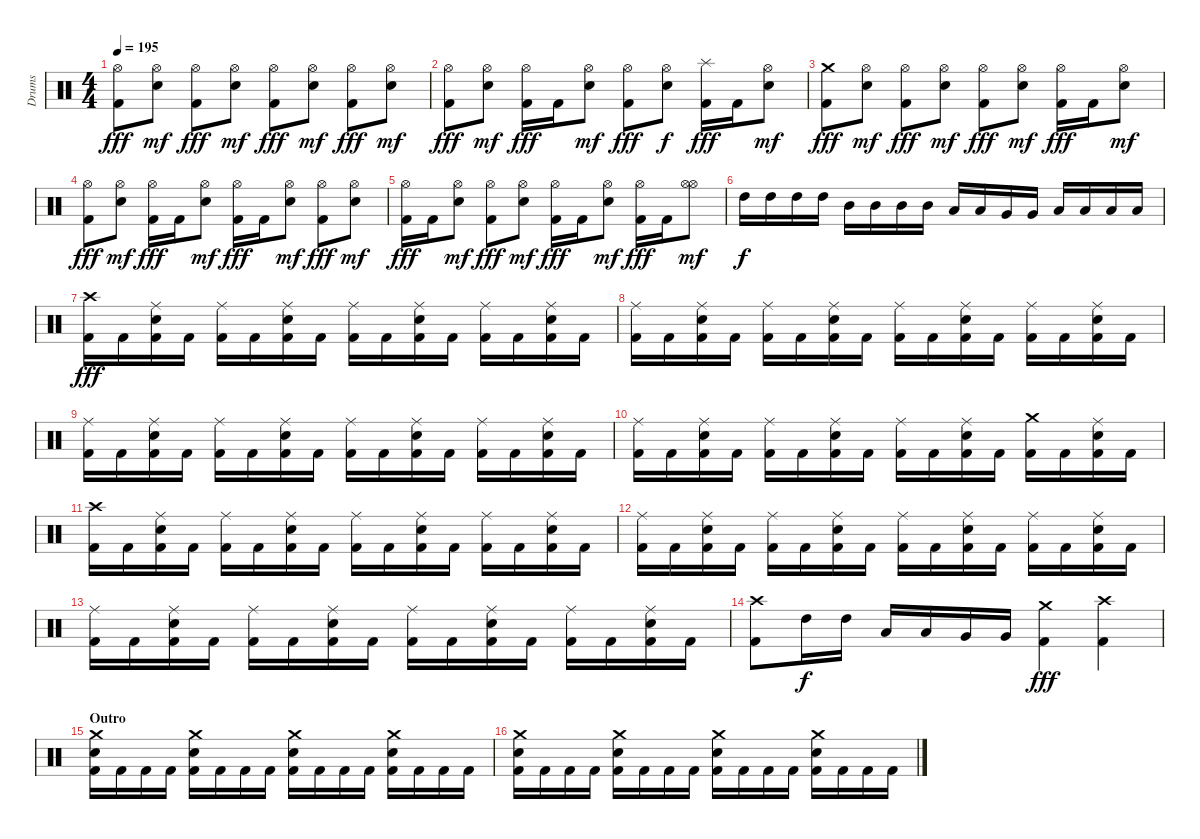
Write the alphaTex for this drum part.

\track ("Drums" "Drums") {instrument percussion}
\staff {score}
\articulation defaults
\ts (4 4)
\tempo 195
\clef neutral
\ks c
("Hi-Hat (open)" "Kick (hit) 2").8{dy fff} ("Hi-Hat (open)" "Snare (hit) 2").8{dy mf} ("Hi-Hat (open)" "Kick (hit) 2").8{dy fff} ("Hi-Hat (open)" "Snare (hit) 2").8{dy mf} ("Hi-Hat (open)" "Kick (hit) 2").8{dy fff} ("Hi-Hat (open)" "Snare (hit) 2").8{dy mf} ("Hi-Hat (open)" "Kick (hit) 2").8{dy fff} ("Hi-Hat (open)" "Snare (hit) 2").8{dy mf} |
("Hi-Hat (open)" "Kick (hit) 2").8{dy fff} ("Hi-Hat (open)" "Snare (hit) 2").8{dy mf} ("Hi-Hat (open)" "Kick (hit) 2").16{dy fff} "Kick (hit) 2".16 ("Hi-Hat (open)" "Snare (hit) 2").8{dy mf} ("Hi-Hat (open)" "Kick (hit) 2").8{dy fff} ("Hi-Hat (open)" "Snare (hit) 2").8{dy f} ("Splash (hit)" "Kick (hit) 2").16{dy fff} "Kick (hit) 2".16 ("Hi-Hat (open)" "Snare (hit) 2").8{dy mf} |
("Crash medium (hit)" "Kick (hit) 2").8{dy fff} ("Hi-Hat (open)" "Snare (hit) 2").8{dy mf} ("Hi-Hat (open)" "Kick (hit) 2").8{dy fff} ("Hi-Hat (open)" "Snare (hit) 2").8{dy mf} ("Hi-Hat (open)" "Kick (hit) 2").8{dy fff} ("Hi-Hat (open)" "Snare (hit) 2").8{dy mf} ("Hi-Hat (open)" "Kick (hit) 2").16{dy fff} "Kick (hit) 2".16 ("Hi-Hat (open)" "Snare (hit) 2").8{dy mf} |
("Hi-Hat (open)" "Kick (hit) 2").8{dy fff} ("Hi-Hat (open)" "Snare (hit) 2").8{dy mf} ("Hi-Hat (open)" "Kick (hit) 2").16{dy fff} "Kick (hit) 2".16 ("Hi-Hat (open)" "Snare (hit) 2").8{dy mf} ("Hi-Hat (open)" "Kick (hit) 2").16{dy fff} "Kick (hit) 2".16 ("Hi-Hat (open)" "Snare (hit) 2").8{dy mf} ("Hi-Hat (open)" "Kick (hit) 2").8{dy fff} ("Hi-Hat (open)" "Snare (hit) 2").8{dy mf} |
("Hi-Hat (open)" "Kick (hit) 2").16{dy fff} "Kick (hit) 2".16 ("Hi-Hat (open)" "Snare (hit) 2").8{dy mf} ("Hi-Hat (open)" "Kick (hit) 2").8{dy fff} ("Hi-Hat (open)" "Snare (hit) 2").8{dy mf} ("Hi-Hat (open)" "Kick (hit) 2").16{dy fff} "Kick (hit) 2".16 ("Hi-Hat (open)" "Snare (hit) 2").8{dy mf} ("Hi-Hat (open)" "Kick (hit) 2").16{dy fff} "Kick (hit) 2".16 ("Hi-Hat (open)" "Hi-Hat (open)").8{dy mf} |
"High Tom (hit)".16{dy f} "High Tom (hit)".16 "High Tom (hit)".16 "High Tom (hit)".16 "Mid Tom (hit)".16 "Mid Tom (hit)".16 "Mid Tom (hit)".16 "Mid Tom (hit)".16 "Low Tom (hit)".16 "Low Tom (hit)".16 "Very Low Tom (hit)".16 "Very Low Tom (hit)".16 "Low Floor Tom (hit)".16 "Low Floor Tom (hit)".16 "Low Floor Tom (hit)".16 "Low Floor Tom (hit)".16 |
("Crash high (hit)" "Kick (hit) 2").16{dy fff} "Kick (hit) 2".16 ("Ride (middle)" "Snare (hit) 2" "Kick (hit) 2").16 "Kick (hit) 2".16 ("Ride (middle)" "Kick (hit) 2").16 "Kick (hit) 2".16 ("Ride (middle)" "Snare (hit) 2" "Kick (hit) 2").16 "Kick (hit) 2".16 ("Ride (middle)" "Kick (hit) 2").16 "Kick (hit) 2".16 ("Ride (middle)" "Snare (hit) 2" "Kick (hit) 2").16 "Kick (hit) 2".16 ("Ride (middle)" "Kick (hit) 2").16 "Kick (hit) 2".16 ("Ride (middle)" "Snare (hit) 2" "Kick (hit) 2").16 "Kick (hit) 2".16 |
("Ride (middle)" "Kick (hit) 2").16 "Kick (hit) 2".16 ("Ride (middle)" "Snare (hit) 2" "Kick (hit) 2").16 "Kick (hit) 2".16 ("Ride (middle)" "Kick (hit) 2").16 "Kick (hit) 2".16 ("Ride (middle)" "Snare (hit) 2" "Kick (hit) 2").16 "Kick (hit) 2".16 ("Ride (middle)" "Kick (hit) 2").16 "Kick (hit) 2".16 ("Ride (middle)" "Snare (hit) 2" "Kick (hit) 2").16 "Kick (hit) 2".16 ("Ride (middle)" "Kick (hit) 2").16 "Kick (hit) 2".16 ("Ride (middle)" "Snare (hit) 2" "Kick (hit) 2").16 "Kick (hit) 2".16 |
("Ride (middle)" "Kick (hit) 2").16 "Kick (hit) 2".16 ("Ride (middle)" "Snare (hit) 2" "Kick (hit) 2").16 "Kick (hit) 2".16 ("Ride (middle)" "Kick (hit) 2").16 "Kick (hit) 2".16 ("Ride (middle)" "Snare (hit) 2" "Kick (hit) 2").16 "Kick (hit) 2".16 ("Ride (middle)" "Kick (hit) 2").16 "Kick (hit) 2".16 ("Ride (middle)" "Snare (hit) 2" "Kick (hit) 2").16 "Kick (hit) 2".16 ("Ride (middle)" "Kick (hit) 2").16 "Kick (hit) 2".16 ("Ride (middle)" "Snare (hit) 2" "Kick (hit) 2").16 "Kick (hit) 2".16 |
("Ride (middle)" "Kick (hit) 2").16 "Kick (hit) 2".16 ("Ride (middle)" "Snare (hit) 2" "Kick (hit) 2").16 "Kick (hit) 2".16 ("Ride (middle)" "Kick (hit) 2").16 "Kick (hit) 2".16 ("Ride (middle)" "Snare (hit) 2" "Kick (hit) 2").16 "Kick (hit) 2".16 ("Ride (middle)" "Kick (hit) 2").16 "Kick (hit) 2".16 ("Ride (middle)" "Snare (hit) 2" "Kick (hit) 2").16 "Kick (hit) 2".16 ("Crash medium (hit)" "Kick (hit) 2").16 "Kick (hit) 2".16 ("Ride (middle)" "Snare (hit) 2" "Kick (hit) 2").16 "Kick (hit) 2".16 |
("Crash high (hit)" "Kick (hit) 2").16 "Kick (hit) 2".16 ("Ride (middle)" "Snare (hit) 2" "Kick (hit) 2").16 "Kick (hit) 2".16 ("Ride (middle)" "Kick (hit) 2").16 "Kick (hit) 2".16 ("Ride (middle)" "Snare (hit) 2" "Kick (hit) 2").16 "Kick (hit) 2".16 ("Ride (middle)" "Kick (hit) 2").16 "Kick (hit) 2".16 ("Ride (middle)" "Snare (hit) 2" "Kick (hit) 2").16 "Kick (hit) 2".16 ("Ride (middle)" "Kick (hit) 2").16 "Kick (hit) 2".16 ("Ride (middle)" "Snare (hit) 2" "Kick (hit) 2").16 "Kick (hit) 2".16 |
("Ride (middle)" "Kick (hit) 2").16 "Kick (hit) 2".16 ("Ride (middle)" "Snare (hit) 2" "Kick (hit) 2").16 "Kick (hit) 2".16 ("Ride (middle)" "Kick (hit) 2").16 "Kick (hit) 2".16 ("Ride (middle)" "Snare (hit) 2" "Kick (hit) 2").16 "Kick (hit) 2".16 ("Ride (middle)" "Kick (hit) 2").16 "Kick (hit) 2".16 ("Ride (middle)" "Snare (hit) 2" "Kick (hit) 2").16 "Kick (hit) 2".16 ("Ride (middle)" "Kick (hit) 2").16 "Kick (hit) 2".16 ("Ride (middle)" "Snare (hit) 2" "Kick (hit) 2").16 "Kick (hit) 2".16 |
("Ride (middle)" "Kick (hit) 2").16 "Kick (hit) 2".16 ("Ride (middle)" "Snare (hit) 2" "Kick (hit) 2").16 "Kick (hit) 2".16 ("Ride (middle)" "Kick (hit) 2").16 "Kick (hit) 2".16 ("Ride (middle)" "Snare (hit) 2" "Kick (hit) 2").16 "Kick (hit) 2".16 ("Ride (middle)" "Kick (hit) 2").16 "Kick (hit) 2".16 ("Ride (middle)" "Snare (hit) 2" "Kick (hit) 2").16 "Kick (hit) 2".16 ("Ride (middle)" "Kick (hit) 2").16 "Kick (hit) 2".16 ("Ride (middle)" "Snare (hit) 2" "Kick (hit) 2").16 "Kick (hit) 2".16 |
("Crash high (hit)" "Kick (hit) 2").8 "High Tom (hit)".16{dy f} "High Tom (hit)".16 "Low Tom (hit)".16 "Low Tom (hit)".16 "Very Low Tom (hit)".16 "Very Low Tom (hit)".16 ("Crash medium (hit)" "Kick (hit) 2").4{dy fff} ("Crash high (hit)" "Kick (hit) 2").4 |
\section ("" "Outro")
("Crash medium (hit)" "Snare (hit) 2" "Kick (hit) 2").16 "Kick (hit) 2".16 "Kick (hit) 2".16 "Kick (hit) 2".16 ("Crash medium (hit)" "Snare (hit) 2" "Kick (hit) 2").16 "Kick (hit) 2".16 "Kick (hit) 2".16 "Kick (hit) 2".16 ("Crash medium (hit)" "Snare (hit) 2" "Kick (hit) 2").16 "Kick (hit) 2".16 "Kick (hit) 2".16 "Kick (hit) 2".16 ("Crash medium (hit)" "Snare (hit) 2" "Kick (hit) 2").16 "Kick (hit) 2".16 "Kick (hit) 2".16 "Kick (hit) 2".16 |
("Crash medium (hit)" "Snare (hit) 2" "Kick (hit) 2").16 "Kick (hit) 2".16 "Kick (hit) 2".16 "Kick (hit) 2".16 ("Crash medium (hit)" "Snare (hit) 2" "Kick (hit) 2").16 "Kick (hit) 2".16 "Kick (hit) 2".16 "Kick (hit) 2".16 ("Crash medium (hit)" "Snare (hit) 2" "Kick (hit) 2").16 "Kick (hit) 2".16 "Kick (hit) 2".16 "Kick (hit) 2".16 ("Crash medium (hit)" "Snare (hit) 2" "Kick (hit) 2").16 "Kick (hit) 2".16 "Kick (hit) 2".16 "Kick (hit) 2".16
